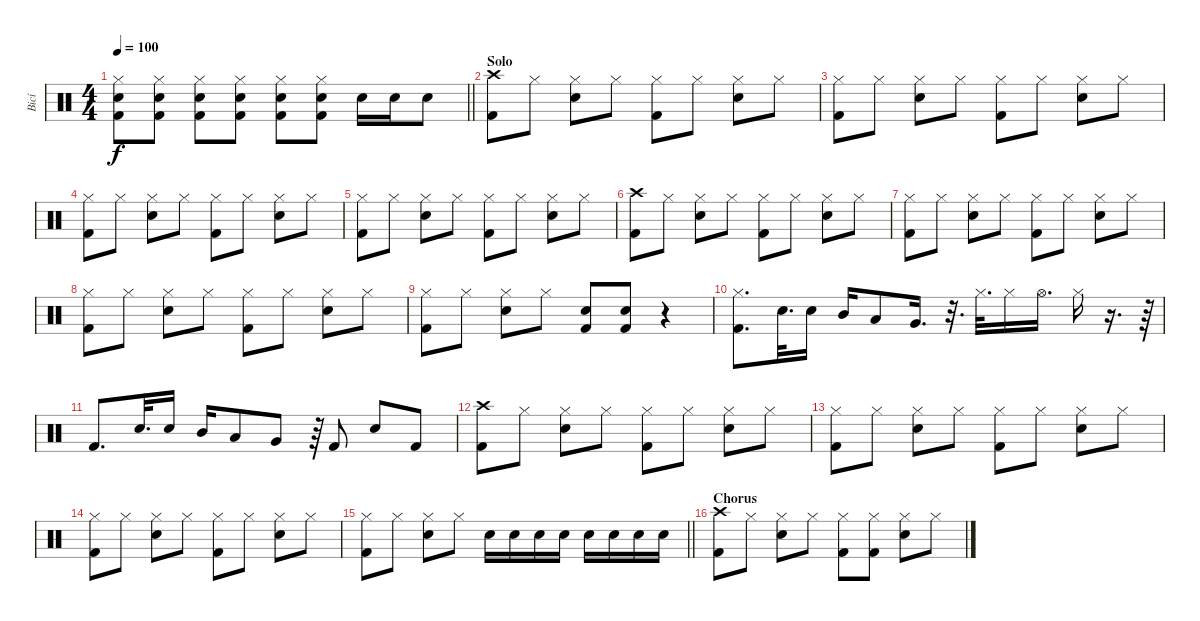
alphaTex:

\track ("Bicí" "Bicí") {instrument percussion}
\staff {score}
\articulation defaults
\ts (4 4)
\tempo 100
\clef neutral
\barLineRight lightlight
\ks c
("Hi-Hat (closed)" "Electric Snare (hit)" "Kick (hit) 2").8{dy f} ("Hi-Hat (closed)" "Electric Snare (hit)" "Kick (hit) 2").8 ("Hi-Hat (closed)" "Electric Snare (hit)" "Kick (hit) 2").8 ("Hi-Hat (closed)" "Electric Snare (hit)" "Kick (hit) 2").8 ("Hi-Hat (closed)" "Electric Snare (hit)" "Kick (hit) 2").8 ("Hi-Hat (closed)" "Electric Snare (hit)" "Kick (hit) 2").8 "Electric Snare (hit)".16 "Electric Snare (hit)".16 "Electric Snare (hit)".8 |
\section ("" "Solo")
("Crash high (hit)" "Kick (hit) 2").8 "Hi-Hat (closed)".8 ("Hi-Hat (closed)" "Electric Snare (hit)").8 "Hi-Hat (closed)".8 ("Hi-Hat (closed)" "Kick (hit) 2").8 "Hi-Hat (closed)".8 ("Hi-Hat (closed)" "Electric Snare (hit)").8 "Hi-Hat (closed)".8 |
("Hi-Hat (closed)" "Kick (hit) 2").8 "Hi-Hat (closed)".8 ("Hi-Hat (closed)" "Electric Snare (hit)").8 "Hi-Hat (closed)".8 ("Hi-Hat (closed)" "Kick (hit) 2").8 "Hi-Hat (closed)".8 ("Hi-Hat (closed)" "Electric Snare (hit)").8 "Hi-Hat (closed)".8 |
("Hi-Hat (closed)" "Kick (hit) 2").8 "Hi-Hat (closed)".8 ("Hi-Hat (closed)" "Electric Snare (hit)").8 "Hi-Hat (closed)".8 ("Hi-Hat (closed)" "Kick (hit) 2").8 "Hi-Hat (closed)".8 ("Hi-Hat (closed)" "Electric Snare (hit)").8 "Hi-Hat (closed)".8 |
("Hi-Hat (closed)" "Kick (hit) 2").8 "Hi-Hat (closed)".8 ("Hi-Hat (closed)" "Electric Snare (hit)").8 "Hi-Hat (closed)".8 ("Hi-Hat (closed)" "Kick (hit) 2").8 "Hi-Hat (closed)".8 ("Hi-Hat (closed)" "Electric Snare (hit)").8 "Hi-Hat (closed)".8 |
("Crash high (hit)" "Kick (hit) 2").8 "Hi-Hat (closed)".8 ("Hi-Hat (closed)" "Electric Snare (hit)").8 "Hi-Hat (closed)".8 ("Hi-Hat (closed)" "Kick (hit) 2").8 "Hi-Hat (closed)".8 ("Hi-Hat (closed)" "Electric Snare (hit)").8 "Hi-Hat (closed)".8 |
("Hi-Hat (closed)" "Kick (hit) 2").8 "Hi-Hat (closed)".8 ("Hi-Hat (closed)" "Electric Snare (hit)").8 "Hi-Hat (closed)".8 ("Hi-Hat (closed)" "Kick (hit) 2").8 "Hi-Hat (closed)".8 ("Hi-Hat (closed)" "Electric Snare (hit)").8 "Hi-Hat (closed)".8 |
("Hi-Hat (closed)" "Kick (hit) 2").8 "Hi-Hat (closed)".8 ("Hi-Hat (closed)" "Electric Snare (hit)").8 "Hi-Hat (closed)".8 ("Hi-Hat (closed)" "Kick (hit) 2").8 "Hi-Hat (closed)".8 ("Hi-Hat (closed)" "Electric Snare (hit)").8 "Hi-Hat (closed)".8 |
("Hi-Hat (closed)" "Kick (hit) 2").8 "Hi-Hat (closed)".8 ("Hi-Hat (closed)" "Electric Snare (hit)").8 "Hi-Hat (closed)".8 ("Electric Snare (hit)" "Kick (hit) 2").8 ("Electric Snare (hit)" "Kick (hit) 2").8 r.4 |
("Hi-Hat (closed)" "Kick (hit) 2").8{d} "Electric Snare (hit)".32{d} "Electric Snare (hit)".16 "Mid Tom (hit)".16 "Low Tom (hit)".8 "Very Low Tom (hit)".16{d} r.32{d} "Hi-Hat (closed)".32{d} "Hi-Hat (closed)".16 "Hi-Hat (open)".16{d} "Hi-Hat (closed)".16 r.16{d} r.64 |
"Kick (hit) 2".8{d} "Electric Snare (hit)".32{d} "Electric Snare (hit)".16 "Mid Tom (hit)".16 "Low Tom (hit)".8 "Very Low Tom (hit)".8 r.64 "Kick (hit) 2".8 "Electric Snare (hit)".8 "Kick (hit) 2".8 |
("Crash high (hit)" "Kick (hit) 2").8 "Hi-Hat (closed)".8 ("Hi-Hat (closed)" "Electric Snare (hit)").8 "Hi-Hat (closed)".8 ("Hi-Hat (closed)" "Kick (hit) 2").8 "Hi-Hat (closed)".8 ("Hi-Hat (closed)" "Electric Snare (hit)").8 "Hi-Hat (closed)".8 |
("Hi-Hat (closed)" "Kick (hit) 2").8 "Hi-Hat (closed)".8 ("Hi-Hat (closed)" "Electric Snare (hit)").8 "Hi-Hat (closed)".8 ("Hi-Hat (closed)" "Kick (hit) 2").8 "Hi-Hat (closed)".8 ("Hi-Hat (closed)" "Electric Snare (hit)").8 "Hi-Hat (closed)".8 |
("Hi-Hat (closed)" "Kick (hit) 2").8 "Hi-Hat (closed)".8 ("Hi-Hat (closed)" "Electric Snare (hit)").8 "Hi-Hat (closed)".8 ("Hi-Hat (closed)" "Kick (hit) 2").8 "Hi-Hat (closed)".8 ("Hi-Hat (closed)" "Electric Snare (hit)").8 "Hi-Hat (closed)".8 |
\barLineRight lightlight
("Hi-Hat (closed)" "Kick (hit) 2").8 "Hi-Hat (closed)".8 ("Hi-Hat (closed)" "Electric Snare (hit)").8 "Hi-Hat (closed)".8 "Electric Snare (hit)".16 "Electric Snare (hit)".16 "Electric Snare (hit)".16 "Electric Snare (hit)".16 "Electric Snare (hit)".16 "Electric Snare (hit)".16 "Electric Snare (hit)".16 "Electric Snare (hit)".16 |
\section ("" "Chorus")
("Crash high (hit)" "Kick (hit) 2").8 "Hi-Hat (closed)".8 ("Hi-Hat (closed)" "Electric Snare (hit)").8 "Hi-Hat (closed)".8 ("Hi-Hat (closed)" "Kick (hit) 2").8 ("Hi-Hat (closed)" "Kick (hit) 2").8 ("Hi-Hat (closed)" "Electric Snare (hit)").8 "Hi-Hat (closed)".8
